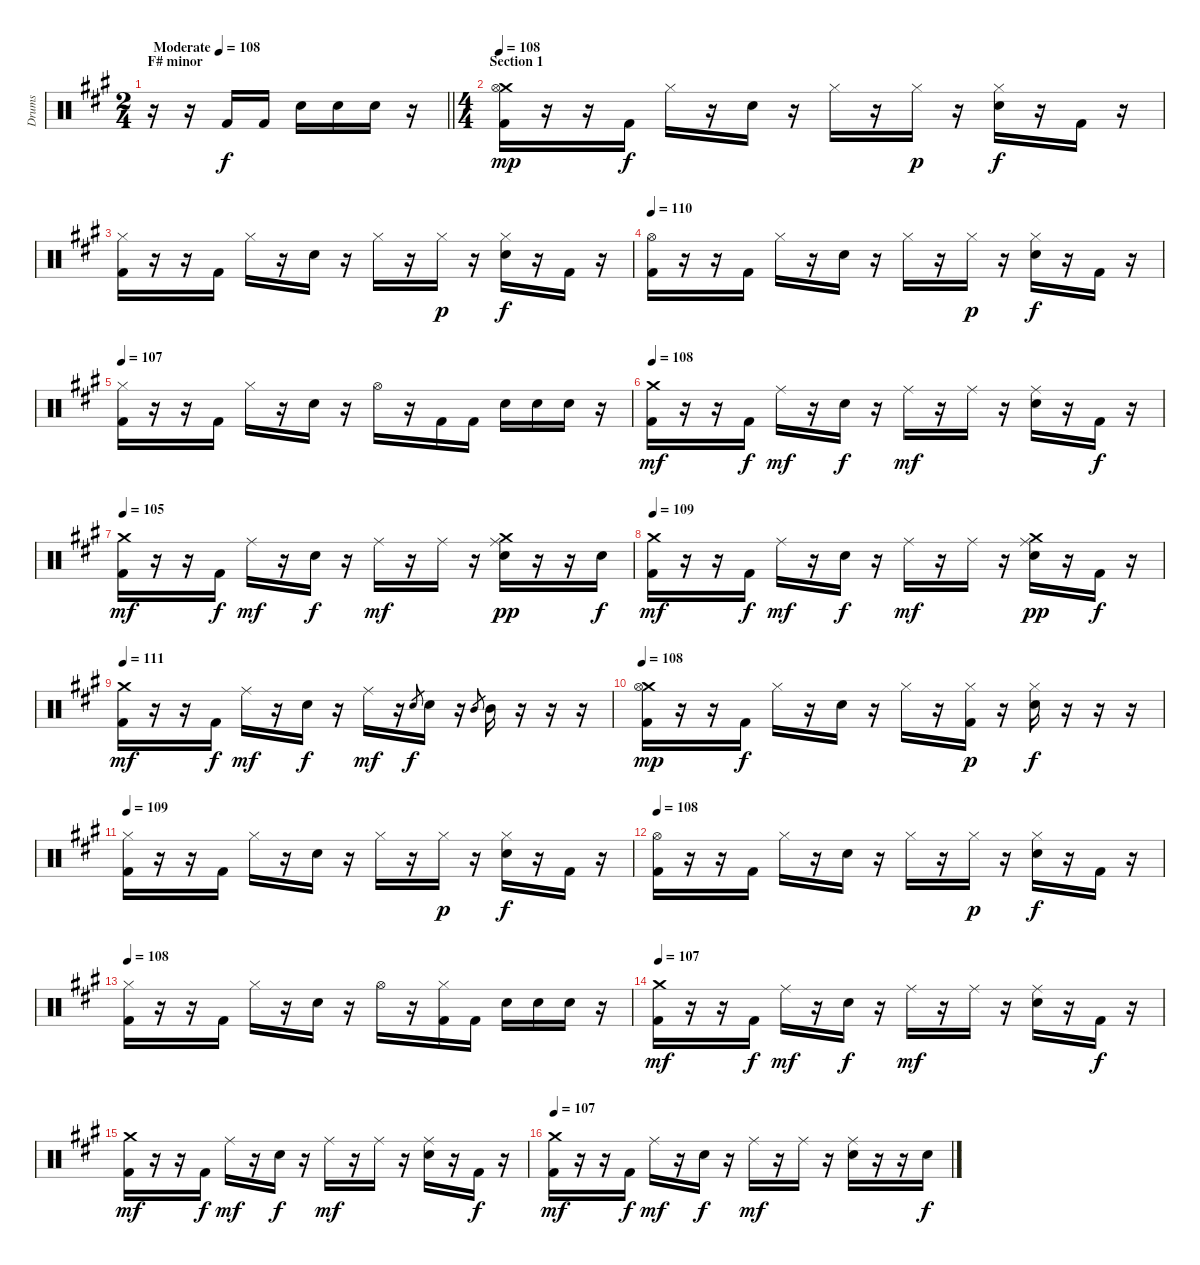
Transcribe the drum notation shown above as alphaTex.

\track ("Drums" "Drums") {instrument percussion}
\staff {score}
\articulation defaults
\ts (2 4)
\section ("" "F# minor")
\tempo (108 "Moderate")
\clef neutral
\barLineRight lightlight
\ks f#minor
r.16{dy f} r.16 "Kick (hit) 2".16 "Kick (hit) 2".16 "Electric Snare (hit)".16 "Electric Snare (hit)".16 "Electric Snare (hit)".16 r.16 |
\ts (4 4)
\section ("" "Section 1")
\tempo 108
("Crash medium (hit)" "Hi-Hat (open)" "Kick (hit) 2").16{dy mp} r.16 r.16 "Kick (hit) 2".16{dy f} "Hi-Hat (closed)".16 r.16 "Electric Snare (hit)".16 r.16 "Hi-Hat (closed)".16 r.16 "Hi-Hat (closed)".16{dy p} r.16 ("Hi-Hat (closed)" "Electric Snare (hit)").16{dy f} r.16 "Kick (hit) 2".16 r.16 |
("Hi-Hat (closed)" "Kick (hit) 2").16 r.16 r.16 "Kick (hit) 2".16 "Hi-Hat (closed)".16 r.16 "Electric Snare (hit)".16 r.16 "Hi-Hat (closed)".16 r.16 "Hi-Hat (closed)".16{dy p} r.16 ("Hi-Hat (closed)" "Electric Snare (hit)").16{dy f} r.16 "Kick (hit) 2".16 r.16 |
\tempo 110
("Hi-Hat (open)" "Kick (hit) 2").16 r.16 r.16 "Kick (hit) 2".16 "Hi-Hat (closed)".16 r.16 "Electric Snare (hit)".16 r.16 "Hi-Hat (closed)".16 r.16 "Hi-Hat (closed)".16{dy p} r.16 ("Hi-Hat (closed)" "Electric Snare (hit)").16{dy f} r.16 "Kick (hit) 2".16 r.16 |
\tempo 107
("Hi-Hat (closed)" "Kick (hit) 2").16 r.16 r.16 "Kick (hit) 2".16 "Hi-Hat (closed)".16 r.16 "Electric Snare (hit)".16 r.16 "Hi-Hat (open)".16 r.16 "Kick (hit) 2".16 "Kick (hit) 2".16 "Electric Snare (hit)".16 "Electric Snare (hit)".16 "Electric Snare (hit)".16 r.16 |
\tempo 108
("Crash medium (hit)" "Kick (hit) 2").16{dy mf} r.16 r.16 "Kick (hit) 2".16{dy f} "Ride (middle)".16{dy mf} r.16 "Electric Snare (hit)".16{dy f} r.16 "Ride (middle)".16{dy mf} r.16 "Ride (middle)".16 r.16 ("Ride (middle)" "Electric Snare (hit)").16 r.16 "Kick (hit) 2".16{dy f} r.16 |
\tempo 105
("Crash medium (hit)" "Kick (hit) 2").16{dy mf} r.16 r.16 "Kick (hit) 2".16{dy f} "Ride (middle)".16{dy mf} r.16 "Electric Snare (hit)".16{dy f} r.16 "Ride (middle)".16{dy mf} r.16 "Ride (middle)".16 r.16 ("Ride (middle)" "Crash medium (hit)" "Electric Snare (hit)").16{dy pp} r.16 r.16 "Electric Snare (hit)".16{dy f} |
\tempo 109
("Crash medium (hit)" "Kick (hit) 2").16{dy mf} r.16 r.16 "Kick (hit) 2".16{dy f} "Ride (middle)".16{dy mf} r.16 "Electric Snare (hit)".16{dy f} r.16 "Ride (middle)".16{dy mf} r.16 "Ride (middle)".16 r.16 ("Ride (middle)" "Crash medium (hit)" "Electric Snare (hit)").16{dy pp} r.16 "Kick (hit) 2".16{dy f} r.16 |
\tempo 111
("Crash medium (hit)" "Kick (hit) 2").16{dy mf} r.16 r.16 "Kick (hit) 2".16{dy f} "Ride (middle)".16{dy mf} r.16 "Electric Snare (hit)".16{dy f} r.16 "Ride (middle)".16{dy mf} r.16 "Electric Snare (hit)".8{gr dy f} "Electric Snare (hit)".16 r.16 "Mid Tom (hit)".8{gr} "Mid Tom (hit)".16 r.16 r.16 r.16 |
\tempo 108
("Crash medium (hit)" "Hi-Hat (open)" "Kick (hit) 2").16{dy mp} r.16 r.16 "Kick (hit) 2".16{dy f} "Hi-Hat (closed)".16 r.16 "Electric Snare (hit)".16 r.16 "Hi-Hat (closed)".16 r.16 ("Hi-Hat (closed)" "Kick (hit) 2").16{dy p} r.16 ("Hi-Hat (closed)" "Electric Snare (hit)").16{dy f} r.16 r.16 r.16 |
\tempo 109
("Hi-Hat (closed)" "Kick (hit) 2").16 r.16 r.16 "Kick (hit) 2".16 "Hi-Hat (closed)".16 r.16 "Electric Snare (hit)".16 r.16 "Hi-Hat (closed)".16 r.16 "Hi-Hat (closed)".16{dy p} r.16 ("Hi-Hat (closed)" "Electric Snare (hit)").16{dy f} r.16 "Kick (hit) 2".16 r.16 |
\tempo 108
("Hi-Hat (open)" "Kick (hit) 2").16 r.16 r.16 "Kick (hit) 2".16 "Hi-Hat (closed)".16 r.16 "Electric Snare (hit)".16 r.16 "Hi-Hat (closed)".16 r.16 "Hi-Hat (closed)".16{dy p} r.16 ("Hi-Hat (closed)" "Electric Snare (hit)").16{dy f} r.16 "Kick (hit) 2".16 r.16 |
\tempo 108
("Hi-Hat (closed)" "Kick (hit) 2").16 r.16 r.16 "Kick (hit) 2".16 "Hi-Hat (closed)".16 r.16 "Electric Snare (hit)".16 r.16 "Hi-Hat (open)".16 r.16 ("Hi-Hat (closed)" "Kick (hit) 2").16 "Kick (hit) 2".16 "Electric Snare (hit)".16 "Electric Snare (hit)".16 "Electric Snare (hit)".16 r.16 |
\tempo 107
("Crash medium (hit)" "Kick (hit) 2").16{dy mf} r.16 r.16 "Kick (hit) 2".16{dy f} "Ride (middle)".16{dy mf} r.16 "Electric Snare (hit)".16{dy f} r.16 "Ride (middle)".16{dy mf} r.16 "Ride (middle)".16 r.16 ("Ride (middle)" "Electric Snare (hit)").16 r.16 "Kick (hit) 2".16{dy f} r.16 |
("Crash medium (hit)" "Kick (hit) 2").16{dy mf} r.16 r.16 "Kick (hit) 2".16{dy f} "Ride (middle)".16{dy mf} r.16 "Electric Snare (hit)".16{dy f} r.16 "Ride (middle)".16{dy mf} r.16 "Ride (middle)".16 r.16 ("Ride (middle)" "Electric Snare (hit)").16 r.16 "Kick (hit) 2".16{dy f} r.16 |
\tempo 107
("Crash medium (hit)" "Kick (hit) 2").16{dy mf} r.16 r.16 "Kick (hit) 2".16{dy f} "Ride (middle)".16{dy mf} r.16 "Electric Snare (hit)".16{dy f} r.16 "Ride (middle)".16{dy mf} r.16 "Ride (middle)".16 r.16 ("Ride (middle)" "Electric Snare (hit)").16 r.16 r.16 "Electric Snare (hit)".16{dy f}
